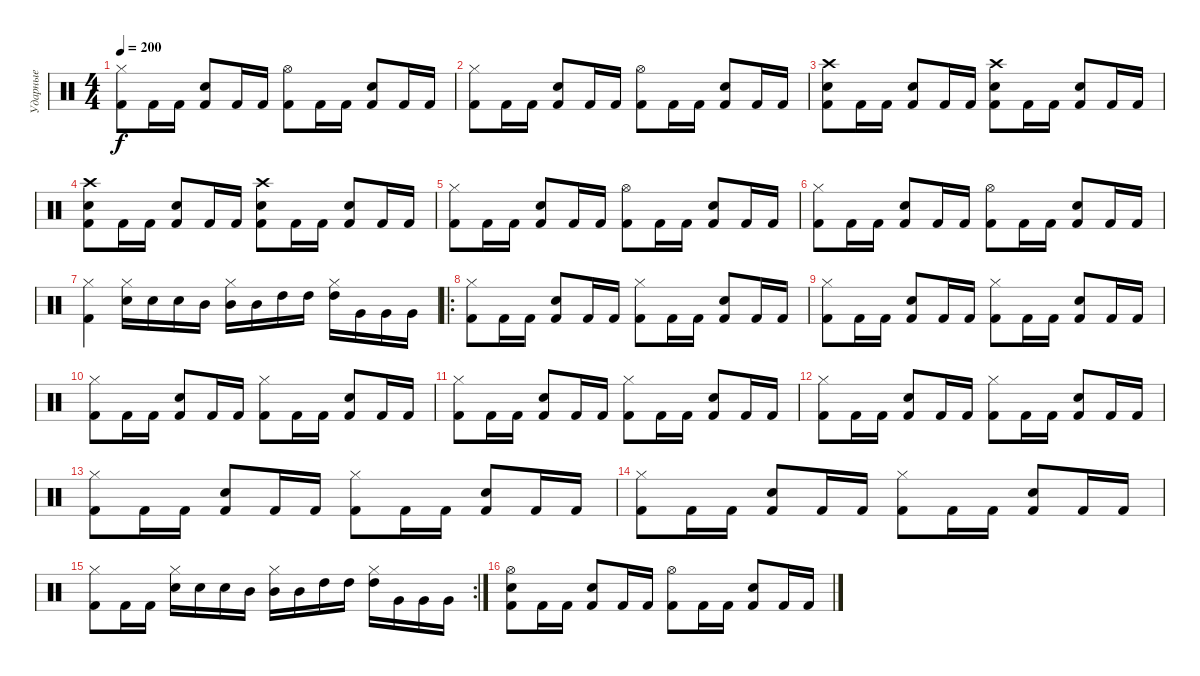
\track ("Ударные" "Ударные") {instrument percussion}
\staff {score}
\articulation defaults
\ts (4 4)
\tempo 200
\clef neutral
\ks c
("Kick (hit) 2" "Hi-Hat (closed)").8{dy f} "Kick (hit) 2".16 "Kick (hit) 2".16 ("Kick (hit) 2" "Snare (hit) 2").8 "Kick (hit) 2".16 "Kick (hit) 2".16 ("Kick (hit) 2" "Hi-Hat (open)").8 "Kick (hit) 2".16 "Kick (hit) 2".16 ("Kick (hit) 2" "Snare (hit) 2").8 "Kick (hit) 2".16 "Kick (hit) 2".16 |
("Kick (hit) 2" "Hi-Hat (closed)").8 "Kick (hit) 2".16 "Kick (hit) 2".16 ("Kick (hit) 2" "Snare (hit) 2").8 "Kick (hit) 2".16 "Kick (hit) 2".16 ("Kick (hit) 2" "Hi-Hat (open)").8 "Kick (hit) 2".16 "Kick (hit) 2".16 ("Kick (hit) 2" "Snare (hit) 2").8 "Kick (hit) 2".16 "Kick (hit) 2".16 |
("Kick (hit) 2" "Crash high (hit)" "Snare (hit) 2").8 "Kick (hit) 2".16 "Kick (hit) 2".16 ("Kick (hit) 2" "Snare (hit) 2").8 "Kick (hit) 2".16 "Kick (hit) 2".16 ("Kick (hit) 2" "Crash high (hit)" "Snare (hit) 2").8 "Kick (hit) 2".16 "Kick (hit) 2".16 ("Kick (hit) 2" "Snare (hit) 2").8 "Kick (hit) 2".16 "Kick (hit) 2".16 |
("Kick (hit) 2" "Crash high (hit)" "Snare (hit) 2").8 "Kick (hit) 2".16 "Kick (hit) 2".16 ("Kick (hit) 2" "Snare (hit) 2").8 "Kick (hit) 2".16 "Kick (hit) 2".16 ("Kick (hit) 2" "Crash high (hit)" "Snare (hit) 2").8 "Kick (hit) 2".16 "Kick (hit) 2".16 ("Kick (hit) 2" "Snare (hit) 2").8 "Kick (hit) 2".16 "Kick (hit) 2".16 |
("Kick (hit) 2" "Hi-Hat (closed)").8 "Kick (hit) 2".16 "Kick (hit) 2".16 ("Kick (hit) 2" "Snare (hit) 2").8 "Kick (hit) 2".16 "Kick (hit) 2".16 ("Kick (hit) 2" "Hi-Hat (open)").8 "Kick (hit) 2".16 "Kick (hit) 2".16 ("Kick (hit) 2" "Snare (hit) 2").8 "Kick (hit) 2".16 "Kick (hit) 2".16 |
("Kick (hit) 2" "Hi-Hat (closed)").8 "Kick (hit) 2".16 "Kick (hit) 2".16 ("Kick (hit) 2" "Snare (hit) 2").8 "Kick (hit) 2".16 "Kick (hit) 2".16 ("Kick (hit) 2" "Hi-Hat (open)").8 "Kick (hit) 2".16 "Kick (hit) 2".16 ("Kick (hit) 2" "Snare (hit) 2").8 "Kick (hit) 2".16 "Kick (hit) 2".16 |
("Kick (hit) 2" "Hi-Hat (closed)").4 ("Electric Snare (hit)" "Hi-Hat (closed)").16 "Electric Snare (hit)".16 "Electric Snare (hit)".16 "Mid Tom (hit)".16 ("Mid Tom (hit)" "Hi-Hat (closed)").16 "Mid Tom (hit)".16 "High Tom (hit)".16 "High Tom (hit)".16 ("High Tom (hit)" "Hi-Hat (closed)").16 "Very Low Tom (hit)".16 "Very Low Tom (hit)".16 "Very Low Tom (hit)".16 |
\ro
("Kick (hit) 2" "Hi-Hat (closed)").8 "Kick (hit) 2".16 "Kick (hit) 2".16 ("Kick (hit) 2" "Snare (hit) 2").8 "Kick (hit) 2".16 "Kick (hit) 2".16 ("Kick (hit) 2" "Hi-Hat (closed)").8 "Kick (hit) 2".16 "Kick (hit) 2".16 ("Kick (hit) 2" "Snare (hit) 2").8 "Kick (hit) 2".16 "Kick (hit) 2".16 |
("Kick (hit) 2" "Hi-Hat (closed)").8 "Kick (hit) 2".16 "Kick (hit) 2".16 ("Kick (hit) 2" "Snare (hit) 2").8 "Kick (hit) 2".16 "Kick (hit) 2".16 ("Kick (hit) 2" "Hi-Hat (closed)").8 "Kick (hit) 2".16 "Kick (hit) 2".16 ("Kick (hit) 2" "Snare (hit) 2").8 "Kick (hit) 2".16 "Kick (hit) 2".16 |
("Kick (hit) 2" "Hi-Hat (closed)").8 "Kick (hit) 2".16 "Kick (hit) 2".16 ("Kick (hit) 2" "Snare (hit) 2").8 "Kick (hit) 2".16 "Kick (hit) 2".16 ("Kick (hit) 2" "Hi-Hat (closed)").8 "Kick (hit) 2".16 "Kick (hit) 2".16 ("Kick (hit) 2" "Snare (hit) 2").8 "Kick (hit) 2".16 "Kick (hit) 2".16 |
("Kick (hit) 2" "Hi-Hat (closed)").8 "Kick (hit) 2".16 "Kick (hit) 2".16 ("Kick (hit) 2" "Snare (hit) 2").8 "Kick (hit) 2".16 "Kick (hit) 2".16 ("Kick (hit) 2" "Hi-Hat (closed)").8 "Kick (hit) 2".16 "Kick (hit) 2".16 ("Kick (hit) 2" "Snare (hit) 2").8 "Kick (hit) 2".16 "Kick (hit) 2".16 |
("Kick (hit) 2" "Hi-Hat (closed)").8 "Kick (hit) 2".16 "Kick (hit) 2".16 ("Kick (hit) 2" "Snare (hit) 2").8 "Kick (hit) 2".16 "Kick (hit) 2".16 ("Kick (hit) 2" "Hi-Hat (closed)").8 "Kick (hit) 2".16 "Kick (hit) 2".16 ("Kick (hit) 2" "Snare (hit) 2").8 "Kick (hit) 2".16 "Kick (hit) 2".16 |
("Kick (hit) 2" "Hi-Hat (closed)").8 "Kick (hit) 2".16 "Kick (hit) 2".16 ("Kick (hit) 2" "Snare (hit) 2").8 "Kick (hit) 2".16 "Kick (hit) 2".16 ("Kick (hit) 2" "Hi-Hat (closed)").8 "Kick (hit) 2".16 "Kick (hit) 2".16 ("Kick (hit) 2" "Snare (hit) 2").8 "Kick (hit) 2".16 "Kick (hit) 2".16 |
("Kick (hit) 2" "Hi-Hat (closed)").8 "Kick (hit) 2".16 "Kick (hit) 2".16 ("Kick (hit) 2" "Snare (hit) 2").8 "Kick (hit) 2".16 "Kick (hit) 2".16 ("Kick (hit) 2" "Hi-Hat (closed)").8 "Kick (hit) 2".16 "Kick (hit) 2".16 ("Kick (hit) 2" "Snare (hit) 2").8 "Kick (hit) 2".16 "Kick (hit) 2".16 |
\rc 2
("Kick (hit) 2" "Hi-Hat (closed)").8 "Kick (hit) 2".16 "Kick (hit) 2".16 ("Electric Snare (hit)" "Hi-Hat (closed)").16 "Electric Snare (hit)".16 "Electric Snare (hit)".16 "Mid Tom (hit)".16 ("Mid Tom (hit)" "Hi-Hat (closed)").16 "Mid Tom (hit)".16 "High Tom (hit)".16 "High Tom (hit)".16 ("High Tom (hit)" "Hi-Hat (closed)").16 "Very Low Tom (hit)".16 "Very Low Tom (hit)".16 "Very Low Tom (hit)".16 |
("Kick (hit) 2" "Hi-Hat (open)" "Snare (hit) 2").8 "Kick (hit) 2".16 "Kick (hit) 2".16 ("Kick (hit) 2" "Snare (hit) 2").8 "Kick (hit) 2".16 "Kick (hit) 2".16 ("Kick (hit) 2" "Hi-Hat (open)").8 "Kick (hit) 2".16 "Kick (hit) 2".16 ("Kick (hit) 2" "Snare (hit) 2").8 "Kick (hit) 2".16 "Kick (hit) 2".16
